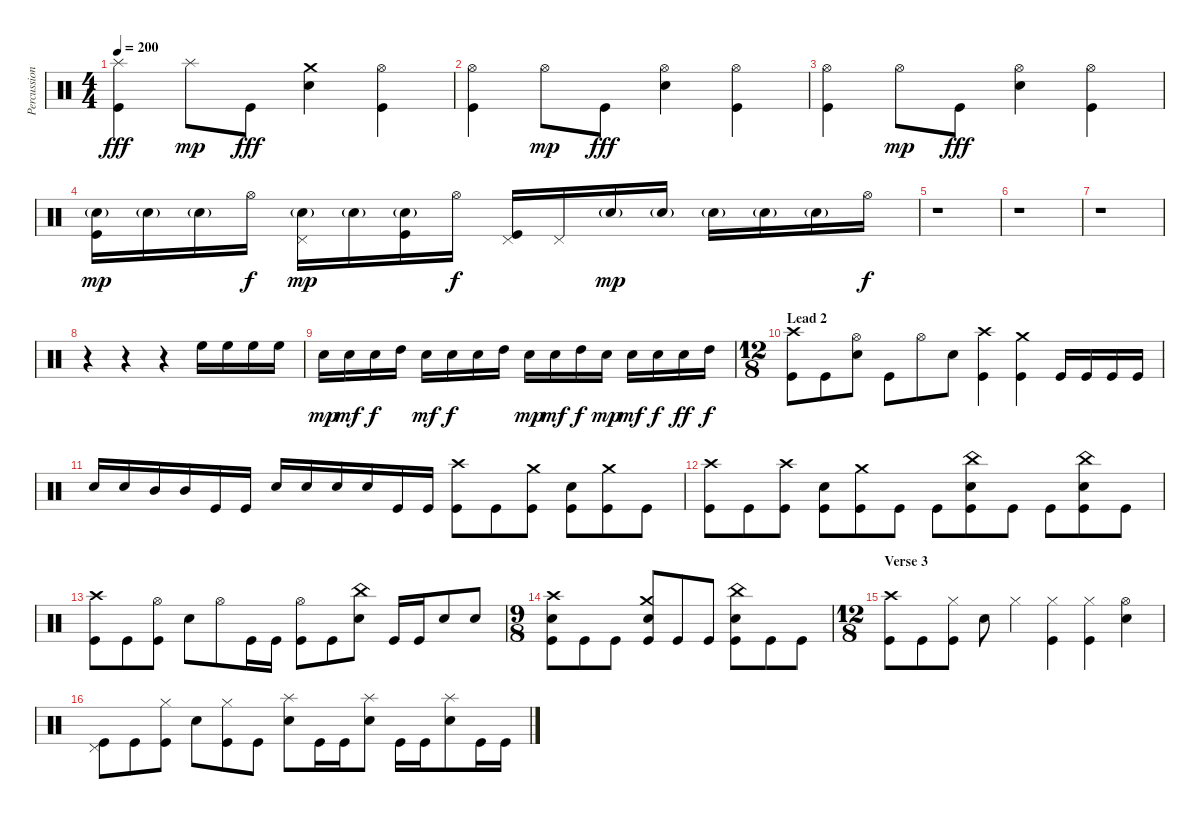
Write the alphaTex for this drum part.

\track ("Percussion" "Percussion") {instrument percussion}
\staff {score}
\articulation defaults
\ts (4 4)
\tempo 200
\clef neutral
\ks c
("Splash (hit)" "Kick (hit)").4{dy fff} "Splash (hit)".8{dy mp} "Kick (hit)".8{dy fff} ("Crash medium (hit)" "Electric Snare (hit)").4 ("Hi-Hat (open)" "Kick (hit)").4 |
("Hi-Hat (open)" "Kick (hit)").4 "Hi-Hat (open)".8{dy mp} "Kick (hit)".8{dy fff} ("Hi-Hat (open)" "Electric Snare (hit)").4 ("Hi-Hat (open)" "Kick (hit)").4 |
("Hi-Hat (open)" "Kick (hit)").4 "Hi-Hat (open)".8{dy mp} "Kick (hit)".8{dy fff} ("Hi-Hat (open)" "Electric Snare (hit)").4 ("Hi-Hat (open)" "Kick (hit)").4 |
("Electric Snare (hit)"{g} "Kick (hit)").16{dy mp} "Electric Snare (hit)"{g}.16 "Electric Snare (hit)"{g}.16 "Hi-Hat (open)".16{dy f} ("Pedal Hi-Hat (hit)" "Electric Snare (hit)"{g}).16{dy mp} "Electric Snare (hit)"{g}.16 ("Electric Snare (hit)"{g} "Kick (hit)").16 "Hi-Hat (open)".16{dy f} ("Pedal Hi-Hat (hit)" "Kick (hit)").16 "Pedal Hi-Hat (hit)".16 "Electric Snare (hit)"{g}.16{dy mp} "Electric Snare (hit)"{g}.16 "Electric Snare (hit)"{g}.16 "Electric Snare (hit)"{g}.16 "Electric Snare (hit)"{g}.16 "Hi-Hat (open)".16{dy f} |
r.1 |
r.1 |
r.1 |
r.4 r.4 r.4 "High Floor Tom (hit)".16 "High Floor Tom (hit)".16 "High Floor Tom (hit)".16 "High Floor Tom (hit)".16 |
"Electric Snare (hit)".16{dy mp} "Electric Snare (hit)".16{dy mf} "Electric Snare (hit)".16{dy f} "High Tom (hit)".16 "Electric Snare (hit)".16{dy mf} "Electric Snare (hit)".16{dy f} "Electric Snare (hit)".16 "High Tom (hit)".16 "Electric Snare (hit)".16{dy mp} "Electric Snare (hit)".16{dy mf} "High Tom (hit)".16{dy f} "Electric Snare (hit)".16{dy mp} "Electric Snare (hit)".16{dy mf} "Electric Snare (hit)".16{dy f} "Electric Snare (hit)".16{dy ff} "High Tom (hit)".16{dy f} |
\ts (12 8)
\section ("" "Lead 2")
("Crash high (hit)" "Kick (hit)").8 "Kick (hit)".8 ("Hi-Hat (open)" "Electric Snare (hit)").8 "Kick (hit)".8 "Hi-Hat (open)".8 "Electric Snare (hit)".8 ("Crash high (hit)" "Kick (hit)").4 ("Crash medium (hit)" "Kick (hit)").4 "Kick (hit)".16 "Kick (hit)".16 "Kick (hit)".16 "Kick (hit)".16 |
"Electric Snare (hit)".16 "Electric Snare (hit)".16 "Mid Tom (hit)".16 "Mid Tom (hit)".16 "Kick (hit)".16 "Kick (hit)".16 "Electric Snare (hit)".16 "Electric Snare (hit)".16 "Electric Snare (hit)".16 "Electric Snare (hit)".16 "Kick (hit)".16 "Kick (hit)".16 ("Crash high (hit)" "Kick (hit)").8 "Kick (hit)".8 ("Crash medium (hit)" "Kick (hit)").8 ("Electric Snare (hit)" "Kick (hit)").8 ("Crash medium (hit)" "Kick (hit)").8 "Kick (hit)".8 |
("Crash high (hit)" "Kick (hit)").8 "Kick (hit)".8 ("Crash high (hit)" "Kick (hit)").8 ("Electric Snare (hit)" "Kick (hit)").8 ("Crash medium (hit)" "Kick (hit)").8 "Kick (hit)".8 "Kick (hit)".8 ("China (hit)" "Electric Snare (hit)" "Kick (hit)").8 "Kick (hit)".8 "Kick (hit)".8 ("China (hit)" "Electric Snare (hit)" "Kick (hit)").8 "Kick (hit)".8 |
("Crash high (hit)" "Kick (hit)").8 "Kick (hit)".8 ("Hi-Hat (open)" "Kick (hit)").8 "Electric Snare (hit)".8 "Hi-Hat (open)".8 "Kick (hit)".16 "Kick (hit)".16 ("Hi-Hat (open)" "Kick (hit)").8 "Kick (hit)".8 ("China (hit)" "Electric Snare (hit)").8 "Kick (hit)".16 "Kick (hit)".16 "Electric Snare (hit)".8 "Electric Snare (hit)".8 |
\ts (9 8)
("Crash high (hit)" "Electric Snare (hit)" "Kick (hit)").8 "Kick (hit)".8 "Kick (hit)".8 ("Crash medium (hit)" "Electric Snare (hit)" "Kick (hit)").8 "Kick (hit)".8 "Kick (hit)".8 ("China (hit)" "Electric Snare (hit)" "Kick (hit)").8 "Kick (hit)".8 "Kick (hit)".8 |
\ts (12 8)
\section ("" "Verse 3")
("Crash high (hit)" "Kick (hit)").8 "Kick (hit)".8 ("Hi-Hat (closed)" "Kick (hit)").8 "Electric Snare (hit)".8 "Hi-Hat (closed)".4 ("Hi-Hat (closed)" "Kick (hit)").4 ("Hi-Hat (closed)" "Kick (hit)").4 ("Hi-Hat (open)" "Electric Snare (hit)").4 |
("Pedal Hi-Hat (hit)" "Kick (hit)").8 "Kick (hit)".8 ("Hi-Hat (closed)" "Kick (hit)").8 "Electric Snare (hit)".8 ("Hi-Hat (closed)" "Kick (hit)").8 "Kick (hit)".8 ("Splash (hit)" "Electric Snare (hit)").8 "Kick (hit)".16 "Kick (hit)".16 ("Splash (hit)" "Electric Snare (hit)").8 "Kick (hit)".16 "Kick (hit)".16 ("Splash (hit)" "Electric Snare (hit)").8 "Kick (hit)".16 "Kick (hit)".16
